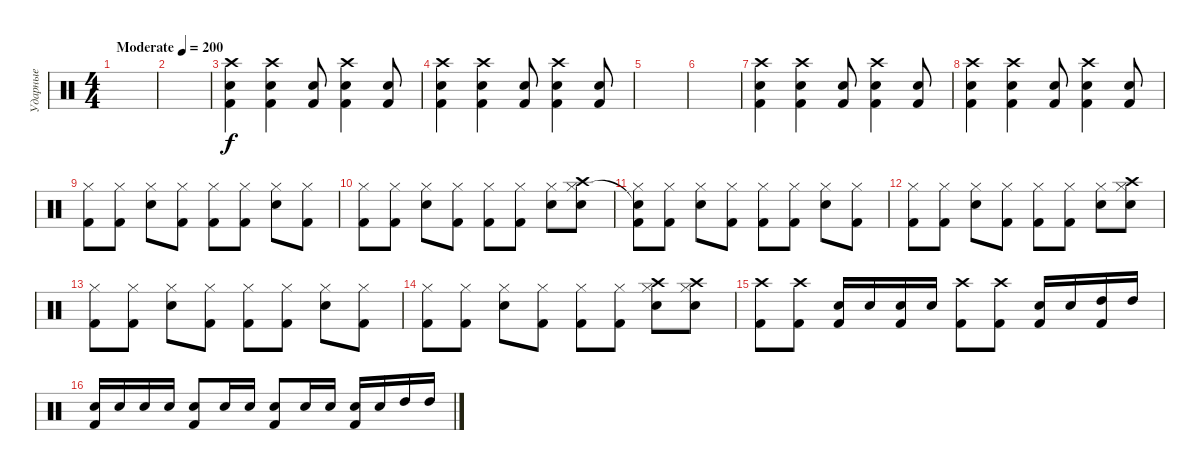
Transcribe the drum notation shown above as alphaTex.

\track ("Ударные" "Ударные") {instrument percussion}
\staff {score}
\articulation defaults
\ts (4 4)
\tempo (200 "Moderate")
\clef neutral
\ks c
|
|
("Crash high (hit)" "Electric Snare (hit)" "Kick (hit) 2").4 ("Crash high (hit)" "Electric Snare (hit)" "Kick (hit) 2").4 ("Electric Snare (hit)" "Kick (hit) 2").8 ("Crash high (hit)" "Electric Snare (hit)" "Kick (hit) 2").4 ("Electric Snare (hit)" "Kick (hit) 2").8 |
("Crash high (hit)" "Electric Snare (hit)" "Kick (hit) 2").4 ("Crash high (hit)" "Electric Snare (hit)" "Kick (hit) 2").4 ("Electric Snare (hit)" "Kick (hit) 2").8 ("Crash high (hit)" "Electric Snare (hit)" "Kick (hit) 2").4 ("Electric Snare (hit)" "Kick (hit) 2").8 |
|
|
("Crash high (hit)" "Electric Snare (hit)" "Kick (hit) 2").4 ("Crash high (hit)" "Electric Snare (hit)" "Kick (hit) 2").4 ("Electric Snare (hit)" "Kick (hit) 2").8 ("Crash high (hit)" "Electric Snare (hit)" "Kick (hit) 2").4 ("Electric Snare (hit)" "Kick (hit) 2").8 |
("Crash high (hit)" "Electric Snare (hit)" "Kick (hit) 2").4 ("Crash high (hit)" "Electric Snare (hit)" "Kick (hit) 2").4 ("Electric Snare (hit)" "Kick (hit) 2").8 ("Crash high (hit)" "Electric Snare (hit)" "Kick (hit) 2").4 ("Electric Snare (hit)" "Kick (hit) 2").8 |
("Hi-Hat (closed)" "Kick (hit) 2").8 ("Hi-Hat (closed)" "Kick (hit) 2").8 ("Hi-Hat (closed)" "Electric Snare (hit)").8 ("Hi-Hat (closed)" "Kick (hit) 2").8 ("Hi-Hat (closed)" "Kick (hit) 2").8 ("Hi-Hat (closed)" "Kick (hit) 2").8 ("Hi-Hat (closed)" "Electric Snare (hit)").8 ("Hi-Hat (closed)" "Kick (hit) 2").8 |
("Hi-Hat (closed)" "Kick (hit) 2").8 ("Hi-Hat (closed)" "Kick (hit) 2").8 ("Hi-Hat (closed)" "Electric Snare (hit)").8 ("Hi-Hat (closed)" "Kick (hit) 2").8 ("Hi-Hat (closed)" "Kick (hit) 2").8 ("Hi-Hat (closed)" "Kick (hit) 2").8 ("Hi-Hat (closed)" "Electric Snare (hit)").8 ("Hi-Hat (closed)" "Crash high (hit)" "Electric Snare (hit)").8 |
("Snare (hit)"{t} "Hi-Hat (closed)" "Kick (hit) 2").8 ("Hi-Hat (closed)" "Kick (hit) 2").8 ("Hi-Hat (closed)" "Electric Snare (hit)").8 ("Hi-Hat (closed)" "Kick (hit) 2").8 ("Hi-Hat (closed)" "Kick (hit) 2").8 ("Hi-Hat (closed)" "Kick (hit) 2").8 ("Hi-Hat (closed)" "Electric Snare (hit)").8 ("Hi-Hat (closed)" "Kick (hit) 2").8 |
("Hi-Hat (closed)" "Kick (hit) 2").8 ("Hi-Hat (closed)" "Kick (hit) 2").8 ("Hi-Hat (closed)" "Electric Snare (hit)").8 ("Hi-Hat (closed)" "Kick (hit) 2").8 ("Hi-Hat (closed)" "Kick (hit) 2").8 ("Hi-Hat (closed)" "Kick (hit) 2").8 ("Hi-Hat (closed)" "Electric Snare (hit)").8 ("Hi-Hat (closed)" "Crash high (hit)" "Electric Snare (hit)").8 |
("Hi-Hat (closed)" "Kick (hit) 2").8 ("Hi-Hat (closed)" "Kick (hit) 2").8 ("Hi-Hat (closed)" "Electric Snare (hit)").8 ("Hi-Hat (closed)" "Kick (hit) 2").8 ("Hi-Hat (closed)" "Kick (hit) 2").8 ("Hi-Hat (closed)" "Kick (hit) 2").8 ("Hi-Hat (closed)" "Electric Snare (hit)").8 ("Hi-Hat (closed)" "Kick (hit) 2").8 |
("Hi-Hat (closed)" "Kick (hit) 2").8 ("Hi-Hat (closed)" "Kick (hit) 2").8 ("Hi-Hat (closed)" "Electric Snare (hit)").8 ("Hi-Hat (closed)" "Kick (hit) 2").8 ("Hi-Hat (closed)" "Kick (hit) 2").8 ("Hi-Hat (closed)" "Kick (hit) 2").8 ("Hi-Hat (closed)" "Crash high (hit)" "Electric Snare (hit)").8 ("Hi-Hat (closed)" "Crash high (hit)" "Electric Snare (hit)").8 |
("Crash high (hit)" "Kick (hit) 2").8 ("Crash high (hit)" "Kick (hit) 2").8 ("Electric Snare (hit)" "Kick (hit) 2").16 "Electric Snare (hit)".16 ("Electric Snare (hit)" "Kick (hit) 2").16 "Electric Snare (hit)".16 ("Crash high (hit)" "Kick (hit) 2").8 ("Crash high (hit)" "Kick (hit) 2").8 ("Electric Snare (hit)" "Kick (hit) 2").16 "Electric Snare (hit)".16 ("High Tom (hit)" "Kick (hit) 2").16 "High Tom (hit)".16 |
("Electric Snare (hit)" "Kick (hit) 2").16 "Electric Snare (hit)".16 "Electric Snare (hit)".16 "Electric Snare (hit)".16 ("Electric Snare (hit)" "Kick (hit) 2").8 "Electric Snare (hit)".16 "Electric Snare (hit)".16 ("Electric Snare (hit)" "Kick (hit) 2").8 "Electric Snare (hit)".16 "Electric Snare (hit)".16 ("Electric Snare (hit)" "Kick (hit) 2").16 "Electric Snare (hit)".16 "High Tom (hit)".16 "High Tom (hit)".16
